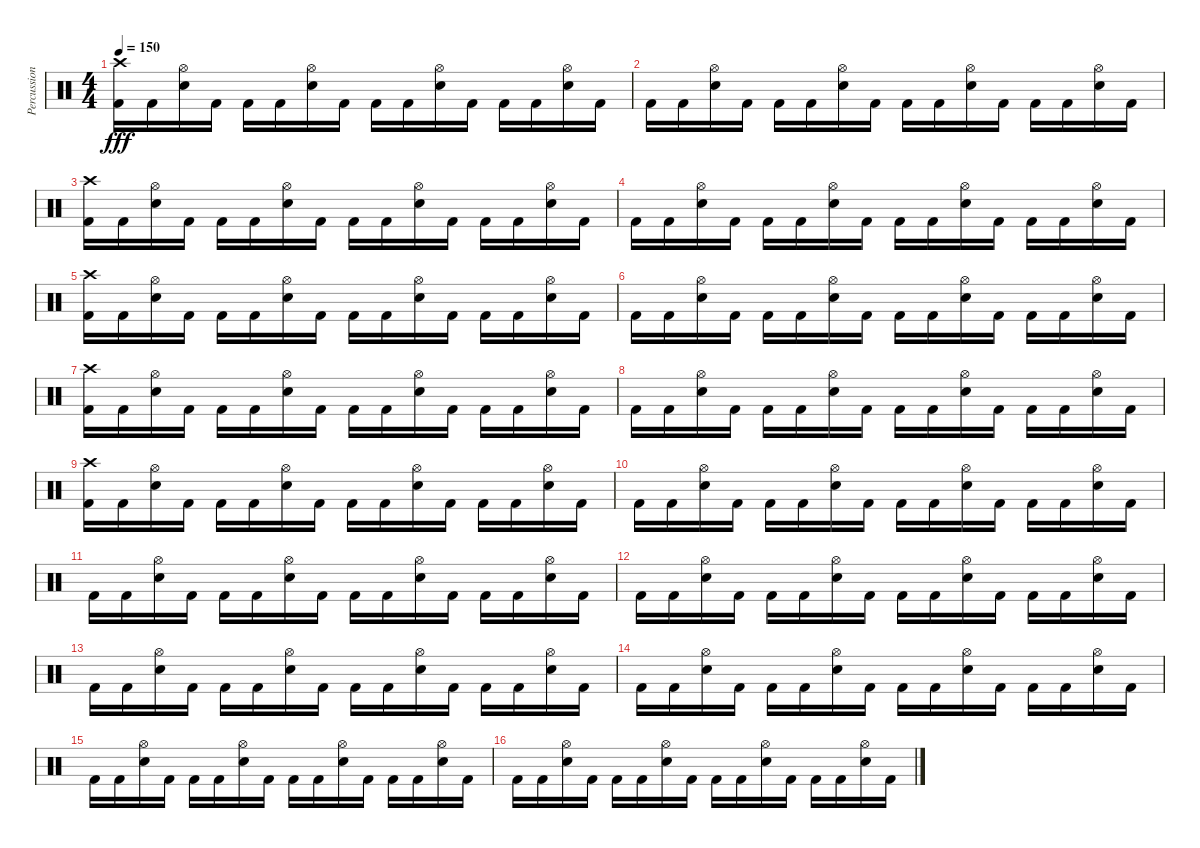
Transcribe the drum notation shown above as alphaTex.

\track ("Percussion" "Percussion") {instrument percussion}
\staff {score}
\articulation defaults
\ts (4 4)
\tempo 150
\clef neutral
\ks c
("Kick (hit) 2" "Crash high (hit)").16{dy fff volume 13} "Kick (hit) 2".16 ("Snare (hit) 2" "Hi-Hat (open)").16 "Kick (hit) 2".16 "Kick (hit) 2".16 "Kick (hit) 2".16 ("Snare (hit) 2" "Hi-Hat (open)").16 "Kick (hit) 2".16 "Kick (hit) 2".16 "Kick (hit) 2".16 ("Snare (hit) 2" "Hi-Hat (open)").16 "Kick (hit) 2".16 "Kick (hit) 2".16 "Kick (hit) 2".16 ("Snare (hit) 2" "Hi-Hat (open)").16 "Kick (hit) 2".16 |
"Kick (hit) 2".16 "Kick (hit) 2".16 ("Snare (hit) 2" "Hi-Hat (open)").16 "Kick (hit) 2".16 "Kick (hit) 2".16 "Kick (hit) 2".16 ("Snare (hit) 2" "Hi-Hat (open)").16 "Kick (hit) 2".16 "Kick (hit) 2".16 "Kick (hit) 2".16 ("Snare (hit) 2" "Hi-Hat (open)").16 "Kick (hit) 2".16 "Kick (hit) 2".16 "Kick (hit) 2".16 ("Snare (hit) 2" "Hi-Hat (open)").16 "Kick (hit) 2".16 |
("Kick (hit) 2" "Crash high (hit)").16 "Kick (hit) 2".16 ("Snare (hit) 2" "Hi-Hat (open)").16 "Kick (hit) 2".16 "Kick (hit) 2".16 "Kick (hit) 2".16 ("Snare (hit) 2" "Hi-Hat (open)").16 "Kick (hit) 2".16 "Kick (hit) 2".16 "Kick (hit) 2".16 ("Snare (hit) 2" "Hi-Hat (open)").16 "Kick (hit) 2".16 "Kick (hit) 2".16 "Kick (hit) 2".16 ("Snare (hit) 2" "Hi-Hat (open)").16 "Kick (hit) 2".16 |
"Kick (hit) 2".16 "Kick (hit) 2".16 ("Snare (hit) 2" "Hi-Hat (open)").16 "Kick (hit) 2".16 "Kick (hit) 2".16 "Kick (hit) 2".16 ("Snare (hit) 2" "Hi-Hat (open)").16 "Kick (hit) 2".16 "Kick (hit) 2".16 "Kick (hit) 2".16 ("Snare (hit) 2" "Hi-Hat (open)").16 "Kick (hit) 2".16 "Kick (hit) 2".16 "Kick (hit) 2".16 ("Snare (hit) 2" "Hi-Hat (open)").16 "Kick (hit) 2".16 |
("Kick (hit) 2" "Crash high (hit)").16 "Kick (hit) 2".16 ("Snare (hit) 2" "Hi-Hat (open)").16 "Kick (hit) 2".16 "Kick (hit) 2".16 "Kick (hit) 2".16 ("Snare (hit) 2" "Hi-Hat (open)").16 "Kick (hit) 2".16 "Kick (hit) 2".16 "Kick (hit) 2".16 ("Snare (hit) 2" "Hi-Hat (open)").16 "Kick (hit) 2".16 "Kick (hit) 2".16 "Kick (hit) 2".16 ("Snare (hit) 2" "Hi-Hat (open)").16 "Kick (hit) 2".16 |
"Kick (hit) 2".16 "Kick (hit) 2".16 ("Snare (hit) 2" "Hi-Hat (open)").16 "Kick (hit) 2".16 "Kick (hit) 2".16 "Kick (hit) 2".16 ("Snare (hit) 2" "Hi-Hat (open)").16 "Kick (hit) 2".16 "Kick (hit) 2".16 "Kick (hit) 2".16 ("Snare (hit) 2" "Hi-Hat (open)").16 "Kick (hit) 2".16 "Kick (hit) 2".16 "Kick (hit) 2".16 ("Snare (hit) 2" "Hi-Hat (open)").16 "Kick (hit) 2".16 |
("Kick (hit) 2" "Crash high (hit)").16 "Kick (hit) 2".16 ("Snare (hit) 2" "Hi-Hat (open)").16 "Kick (hit) 2".16 "Kick (hit) 2".16 "Kick (hit) 2".16 ("Snare (hit) 2" "Hi-Hat (open)").16 "Kick (hit) 2".16 "Kick (hit) 2".16 "Kick (hit) 2".16 ("Snare (hit) 2" "Hi-Hat (open)").16 "Kick (hit) 2".16 "Kick (hit) 2".16 "Kick (hit) 2".16 ("Snare (hit) 2" "Hi-Hat (open)").16 "Kick (hit) 2".16 |
"Kick (hit) 2".16 "Kick (hit) 2".16 ("Snare (hit) 2" "Hi-Hat (open)").16 "Kick (hit) 2".16 "Kick (hit) 2".16 "Kick (hit) 2".16 ("Snare (hit) 2" "Hi-Hat (open)").16 "Kick (hit) 2".16 "Kick (hit) 2".16 "Kick (hit) 2".16 ("Snare (hit) 2" "Hi-Hat (open)").16 "Kick (hit) 2".16 "Kick (hit) 2".16 "Kick (hit) 2".16 ("Snare (hit) 2" "Hi-Hat (open)").16 "Kick (hit) 2".16 |
("Kick (hit) 2" "Crash high (hit)").16 "Kick (hit) 2".16 ("Snare (hit) 2" "Hi-Hat (open)").16 "Kick (hit) 2".16 "Kick (hit) 2".16 "Kick (hit) 2".16 ("Snare (hit) 2" "Hi-Hat (open)").16 "Kick (hit) 2".16 "Kick (hit) 2".16 "Kick (hit) 2".16 ("Snare (hit) 2" "Hi-Hat (open)").16 "Kick (hit) 2".16 "Kick (hit) 2".16 "Kick (hit) 2".16 ("Snare (hit) 2" "Hi-Hat (open)").16 "Kick (hit) 2".16 |
"Kick (hit) 2".16 "Kick (hit) 2".16 ("Snare (hit) 2" "Hi-Hat (open)").16 "Kick (hit) 2".16 "Kick (hit) 2".16 "Kick (hit) 2".16 ("Snare (hit) 2" "Hi-Hat (open)").16 "Kick (hit) 2".16 "Kick (hit) 2".16 "Kick (hit) 2".16 ("Snare (hit) 2" "Hi-Hat (open)").16 "Kick (hit) 2".16 "Kick (hit) 2".16 "Kick (hit) 2".16 ("Snare (hit) 2" "Hi-Hat (open)").16 "Kick (hit) 2".16 |
"Kick (hit) 2".16 "Kick (hit) 2".16 ("Snare (hit) 2" "Hi-Hat (open)").16 "Kick (hit) 2".16 "Kick (hit) 2".16 "Kick (hit) 2".16 ("Snare (hit) 2" "Hi-Hat (open)").16 "Kick (hit) 2".16 "Kick (hit) 2".16 "Kick (hit) 2".16 ("Snare (hit) 2" "Hi-Hat (open)").16 "Kick (hit) 2".16 "Kick (hit) 2".16 "Kick (hit) 2".16 ("Snare (hit) 2" "Hi-Hat (open)").16 "Kick (hit) 2".16 |
"Kick (hit) 2".16 "Kick (hit) 2".16 ("Snare (hit) 2" "Hi-Hat (open)").16 "Kick (hit) 2".16 "Kick (hit) 2".16 "Kick (hit) 2".16 ("Snare (hit) 2" "Hi-Hat (open)").16 "Kick (hit) 2".16 "Kick (hit) 2".16 "Kick (hit) 2".16 ("Snare (hit) 2" "Hi-Hat (open)").16 "Kick (hit) 2".16 "Kick (hit) 2".16 "Kick (hit) 2".16 ("Snare (hit) 2" "Hi-Hat (open)").16 "Kick (hit) 2".16 |
"Kick (hit) 2".16 "Kick (hit) 2".16 ("Snare (hit) 2" "Hi-Hat (open)").16 "Kick (hit) 2".16 "Kick (hit) 2".16 "Kick (hit) 2".16 ("Snare (hit) 2" "Hi-Hat (open)").16 "Kick (hit) 2".16 "Kick (hit) 2".16 "Kick (hit) 2".16 ("Snare (hit) 2" "Hi-Hat (open)").16 "Kick (hit) 2".16 "Kick (hit) 2".16 "Kick (hit) 2".16 ("Snare (hit) 2" "Hi-Hat (open)").16 "Kick (hit) 2".16 |
"Kick (hit) 2".16 "Kick (hit) 2".16 ("Snare (hit) 2" "Hi-Hat (open)").16 "Kick (hit) 2".16 "Kick (hit) 2".16 "Kick (hit) 2".16 ("Snare (hit) 2" "Hi-Hat (open)").16 "Kick (hit) 2".16 "Kick (hit) 2".16 "Kick (hit) 2".16 ("Snare (hit) 2" "Hi-Hat (open)").16 "Kick (hit) 2".16 "Kick (hit) 2".16 "Kick (hit) 2".16 ("Snare (hit) 2" "Hi-Hat (open)").16 "Kick (hit) 2".16 |
"Kick (hit) 2".16 "Kick (hit) 2".16 ("Snare (hit) 2" "Hi-Hat (open)").16 "Kick (hit) 2".16 "Kick (hit) 2".16 "Kick (hit) 2".16 ("Snare (hit) 2" "Hi-Hat (open)").16 "Kick (hit) 2".16 "Kick (hit) 2".16 "Kick (hit) 2".16 ("Snare (hit) 2" "Hi-Hat (open)").16 "Kick (hit) 2".16 "Kick (hit) 2".16 "Kick (hit) 2".16 ("Snare (hit) 2" "Hi-Hat (open)").16 "Kick (hit) 2".16 |
"Kick (hit) 2".16 "Kick (hit) 2".16 ("Snare (hit) 2" "Hi-Hat (open)").16 "Kick (hit) 2".16 "Kick (hit) 2".16 "Kick (hit) 2".16 ("Snare (hit) 2" "Hi-Hat (open)").16 "Kick (hit) 2".16 "Kick (hit) 2".16 "Kick (hit) 2".16 ("Snare (hit) 2" "Hi-Hat (open)").16 "Kick (hit) 2".16 "Kick (hit) 2".16 "Kick (hit) 2".16 ("Snare (hit) 2" "Hi-Hat (open)").16 "Kick (hit) 2".16
